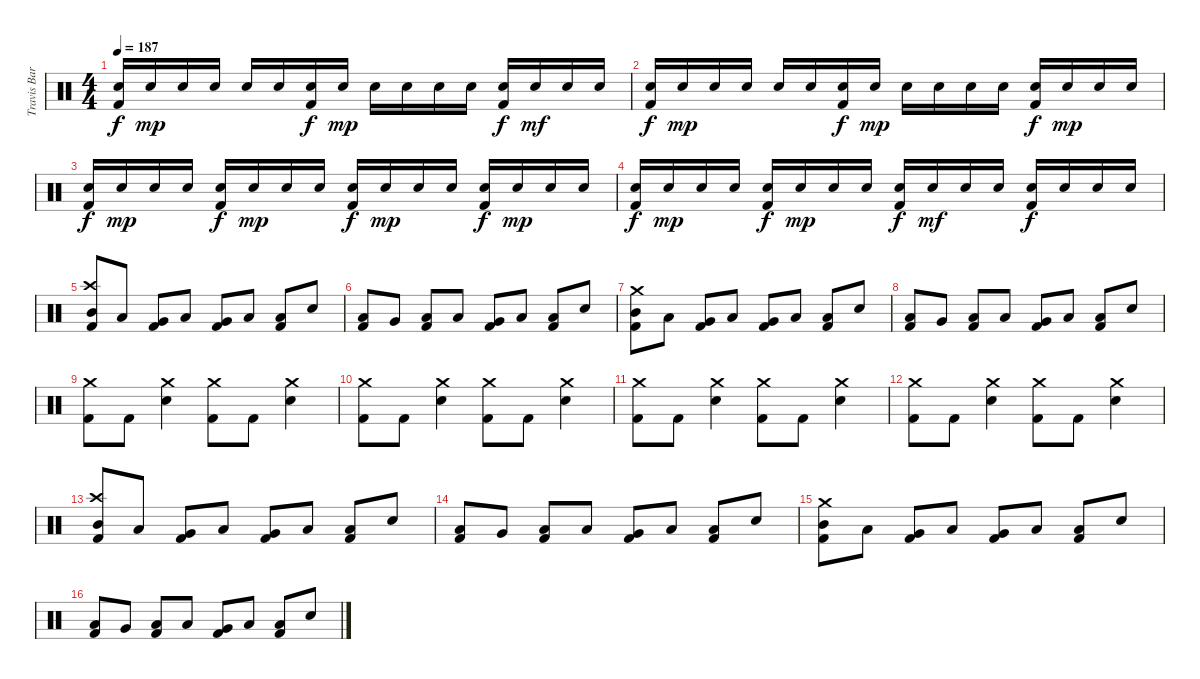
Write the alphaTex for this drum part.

\track ("Travis Barker Drums" "Travis Bar") {instrument percussion}
\staff {score}
\articulation defaults
\ts (4 4)
\tempo 187
\clef neutral
\ks c
("Electric Snare (hit)" "Kick (hit) 2").16{dy f} "Electric Snare (hit)".16{dy mp} "Electric Snare (hit)".16 "Electric Snare (hit)".16 "Electric Snare (hit)".16 "Electric Snare (hit)".16 ("Electric Snare (hit)" "Kick (hit) 2").16{dy f} "Electric Snare (hit)".16{dy mp} "Electric Snare (hit)".16 "Electric Snare (hit)".16 "Electric Snare (hit)".16 "Electric Snare (hit)".16 ("Electric Snare (hit)" "Kick (hit) 2").16{dy f} "Electric Snare (hit)".16{dy mf} "Electric Snare (hit)".16 "Electric Snare (hit)".16 |
("Electric Snare (hit)" "Kick (hit) 2").16{dy f} "Electric Snare (hit)".16{dy mp} "Electric Snare (hit)".16 "Electric Snare (hit)".16 "Electric Snare (hit)".16 "Electric Snare (hit)".16 ("Electric Snare (hit)" "Kick (hit) 2").16{dy f} "Electric Snare (hit)".16{dy mp} "Electric Snare (hit)".16 "Electric Snare (hit)".16 "Electric Snare (hit)".16 "Electric Snare (hit)".16 ("Electric Snare (hit)" "Kick (hit) 2").16{dy f} "Electric Snare (hit)".16{dy mp} "Electric Snare (hit)".16 "Electric Snare (hit)".16 |
("Electric Snare (hit)" "Kick (hit) 2").16{dy f} "Electric Snare (hit)".16{dy mp} "Electric Snare (hit)".16 "Electric Snare (hit)".16 ("Electric Snare (hit)" "Kick (hit) 2").16{dy f} "Electric Snare (hit)".16{dy mp} "Electric Snare (hit)".16 "Electric Snare (hit)".16 ("Electric Snare (hit)" "Kick (hit) 2").16{dy f} "Electric Snare (hit)".16{dy mp} "Electric Snare (hit)".16 "Electric Snare (hit)".16 ("Electric Snare (hit)" "Kick (hit) 2").16{dy f} "Electric Snare (hit)".16{dy mp} "Electric Snare (hit)".16 "Electric Snare (hit)".16 |
("Electric Snare (hit)" "Kick (hit) 2").16{dy f} "Electric Snare (hit)".16{dy mp} "Electric Snare (hit)".16 "Electric Snare (hit)".16 ("Electric Snare (hit)" "Kick (hit) 2").16{dy f} "Electric Snare (hit)".16{dy mp} "Electric Snare (hit)".16 "Electric Snare (hit)".16 ("Electric Snare (hit)" "Kick (hit) 2").16{dy f} "Electric Snare (hit)".16{dy mf} "Electric Snare (hit)".16 "Electric Snare (hit)".16 ("Electric Snare (hit)" "Kick (hit) 2").16{dy f} "Electric Snare (hit)".16 "Electric Snare (hit)".16 "Electric Snare (hit)".16 |
("Crash high (hit)" "Mid Tom (hit)" "Kick (hit) 2").8 "Low Tom (hit)".8 ("Very Low Tom (hit)" "Kick (hit) 2").8 "Low Floor Tom (hit)".8 ("Very Low Tom (hit)" "Kick (hit) 2").8 "Low Floor Tom (hit)".8 ("Low Floor Tom (hit)" "Kick (hit) 2").8 "Electric Snare (hit)".8 |
("Low Tom (hit)" "Kick (hit) 2").8 "Very Low Tom (hit)".8 ("Low Floor Tom (hit)" "Kick (hit) 2").8 "Low Floor Tom (hit)".8 ("Very Low Tom (hit)" "Kick (hit) 2").8 "Low Floor Tom (hit)".8 ("Low Floor Tom (hit)" "Kick (hit) 2").8 "Electric Snare (hit)".8 |
("Crash medium (hit)" "Mid Tom (hit)" "Kick (hit) 2").8 "Low Tom (hit)".8 ("Very Low Tom (hit)" "Kick (hit) 2").8 "Low Floor Tom (hit)".8 ("Very Low Tom (hit)" "Kick (hit) 2").8 "Low Floor Tom (hit)".8 ("Low Floor Tom (hit)" "Kick (hit) 2").8 "Electric Snare (hit)".8 |
("Low Tom (hit)" "Kick (hit) 2").8 "Very Low Tom (hit)".8 ("Low Floor Tom (hit)" "Kick (hit) 2").8 "Low Floor Tom (hit)".8 ("Very Low Tom (hit)" "Kick (hit) 2").8 "Low Floor Tom (hit)".8 ("Low Floor Tom (hit)" "Kick (hit) 2").8 "Electric Snare (hit)".8 |
("Crash medium (hit)" "Kick (hit) 2").8 "Kick (hit) 2".8 ("Crash medium (hit)" "Electric Snare (hit)").4 ("Crash medium (hit)" "Kick (hit) 2").8 "Kick (hit) 2".8 ("Crash medium (hit)" "Electric Snare (hit)").4 |
("Crash medium (hit)" "Kick (hit) 2").8 "Kick (hit) 2".8 ("Crash medium (hit)" "Electric Snare (hit)").4 ("Crash medium (hit)" "Kick (hit) 2").8 "Kick (hit) 2".8 ("Crash medium (hit)" "Electric Snare (hit)").4 |
("Crash medium (hit)" "Kick (hit) 2").8 "Kick (hit) 2".8 ("Crash medium (hit)" "Electric Snare (hit)").4 ("Crash medium (hit)" "Kick (hit) 2").8 "Kick (hit) 2".8 ("Crash medium (hit)" "Electric Snare (hit)").4 |
("Crash medium (hit)" "Kick (hit) 2").8 "Kick (hit) 2".8 ("Crash medium (hit)" "Electric Snare (hit)").4 ("Crash medium (hit)" "Kick (hit) 2").8 "Kick (hit) 2".8 ("Crash medium (hit)" "Electric Snare (hit)").4 |
("Crash high (hit)" "Mid Tom (hit)" "Kick (hit) 2").8 "Low Tom (hit)".8 ("Very Low Tom (hit)" "Kick (hit) 2").8 "Low Floor Tom (hit)".8 ("Very Low Tom (hit)" "Kick (hit) 2").8 "Low Floor Tom (hit)".8 ("Low Floor Tom (hit)" "Kick (hit) 2").8 "Electric Snare (hit)".8 |
("Low Tom (hit)" "Kick (hit) 2").8 "Very Low Tom (hit)".8 ("Low Floor Tom (hit)" "Kick (hit) 2").8 "Low Floor Tom (hit)".8 ("Very Low Tom (hit)" "Kick (hit) 2").8 "Low Floor Tom (hit)".8 ("Low Floor Tom (hit)" "Kick (hit) 2").8 "Electric Snare (hit)".8 |
("Crash medium (hit)" "Mid Tom (hit)" "Kick (hit) 2").8 "Low Tom (hit)".8 ("Very Low Tom (hit)" "Kick (hit) 2").8 "Low Floor Tom (hit)".8 ("Very Low Tom (hit)" "Kick (hit) 2").8 "Low Floor Tom (hit)".8 ("Low Floor Tom (hit)" "Kick (hit) 2").8 "Electric Snare (hit)".8 |
("Low Tom (hit)" "Kick (hit) 2").8 "Very Low Tom (hit)".8 ("Low Floor Tom (hit)" "Kick (hit) 2").8 "Low Floor Tom (hit)".8 ("Very Low Tom (hit)" "Kick (hit) 2").8 "Low Floor Tom (hit)".8 ("Low Floor Tom (hit)" "Kick (hit) 2").8 "Electric Snare (hit)".8
